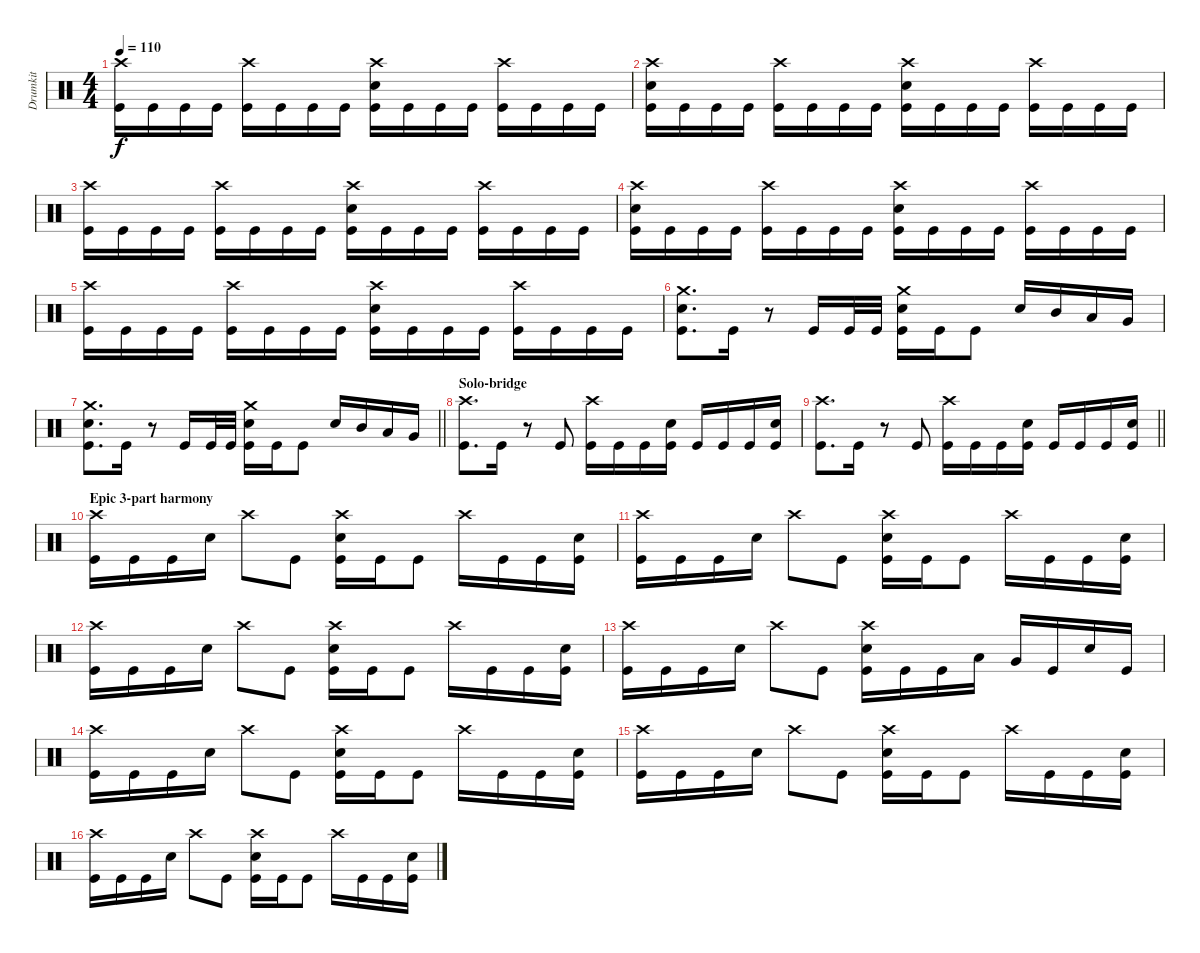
\track ("Drumkit" "Drumkit") {instrument percussion}
\staff {score}
\articulation defaults
\ts (4 4)
\tempo 110
\clef neutral
\ks c
("Crash high (hit)" "Kick (hit)").16{dy f} "Kick (hit)".16 "Kick (hit)".16 "Kick (hit)".16 ("Crash high (hit)" "Kick (hit)").16 "Kick (hit)".16 "Kick (hit)".16 "Kick (hit)".16 ("Crash high (hit)" "Snare (hit) 2" "Kick (hit)").16 "Kick (hit)".16 "Kick (hit)".16 "Kick (hit)".16 ("Crash high (hit)" "Kick (hit)").16 "Kick (hit)".16 "Kick (hit)".16 "Kick (hit)".16 |
("Crash high (hit)" "Snare (hit) 2" "Kick (hit)").16 "Kick (hit)".16 "Kick (hit)".16 "Kick (hit)".16 ("Crash high (hit)" "Kick (hit)").16 "Kick (hit)".16 "Kick (hit)".16 "Kick (hit)".16 ("Crash high (hit)" "Snare (hit) 2" "Kick (hit)").16 "Kick (hit)".16 "Kick (hit)".16 "Kick (hit)".16 ("Crash high (hit)" "Kick (hit)").16 "Kick (hit)".16 "Kick (hit)".16 "Kick (hit)".16 |
("Crash high (hit)" "Kick (hit)").16 "Kick (hit)".16 "Kick (hit)".16 "Kick (hit)".16 ("Crash high (hit)" "Kick (hit)").16 "Kick (hit)".16 "Kick (hit)".16 "Kick (hit)".16 ("Crash high (hit)" "Snare (hit) 2" "Kick (hit)").16 "Kick (hit)".16 "Kick (hit)".16 "Kick (hit)".16 ("Crash high (hit)" "Kick (hit)").16 "Kick (hit)".16 "Kick (hit)".16 "Kick (hit)".16 |
("Crash high (hit)" "Snare (hit) 2" "Kick (hit)").16 "Kick (hit)".16 "Kick (hit)".16 "Kick (hit)".16 ("Crash high (hit)" "Kick (hit)").16 "Kick (hit)".16 "Kick (hit)".16 "Kick (hit)".16 ("Crash high (hit)" "Snare (hit) 2" "Kick (hit)").16 "Kick (hit)".16 "Kick (hit)".16 "Kick (hit)".16 ("Crash high (hit)" "Kick (hit)").16 "Kick (hit)".16 "Kick (hit)".16 "Kick (hit)".16 |
("Crash high (hit)" "Kick (hit)").16 "Kick (hit)".16 "Kick (hit)".16 "Kick (hit)".16 ("Crash high (hit)" "Kick (hit)").16 "Kick (hit)".16 "Kick (hit)".16 "Kick (hit)".16 ("Crash high (hit)" "Snare (hit) 2" "Kick (hit)").16 "Kick (hit)".16 "Kick (hit)".16 "Kick (hit)".16 ("Crash high (hit)" "Kick (hit)").16 "Kick (hit)".16 "Kick (hit)".16 "Kick (hit)".16 |
("Crash medium (hit)" "Snare (hit) 2" "Kick (hit)").8{d} "Kick (hit)".16 r.8 "Kick (hit)".16 "Kick (hit)".32 "Kick (hit)".32 ("Crash medium (hit)" "Snare (hit) 2" "Kick (hit)").16 "Kick (hit)".16 "Kick (hit)".8 "Snare (hit) 2".16 "Mid Tom (hit)".16 "Low Tom (hit)".16 "Very Low Tom (hit)".16 |
\barLineRight lightlight
("Crash medium (hit)" "Snare (hit) 2" "Kick (hit)").8{d} "Kick (hit)".16 r.8 "Kick (hit)".16 "Kick (hit)".32 "Kick (hit)".32 ("Crash medium (hit)" "Snare (hit) 2" "Kick (hit)").16 "Kick (hit)".16 "Kick (hit)".8 "Snare (hit) 2".16 "Mid Tom (hit)".16 "Low Tom (hit)".16 "Very Low Tom (hit)".16 |
\section ("" "Solo-bridge")
("Crash high (hit)" "Kick (hit)").8{d} "Kick (hit)".16 r.8 "Kick (hit)".8 ("Crash high (hit)" "Kick (hit)").16 "Kick (hit)".16 "Kick (hit)".16 ("Snare (hit) 2" "Kick (hit)").16 "Kick (hit)".16 "Kick (hit)".16 "Kick (hit)".16 ("Snare (hit) 2" "Kick (hit)").16 |
\barLineRight lightlight
("Crash high (hit)" "Kick (hit)").8{d} "Kick (hit)".16 r.8 "Kick (hit)".8 ("Crash high (hit)" "Kick (hit)").16 "Kick (hit)".16 "Kick (hit)".16 ("Snare (hit) 2" "Kick (hit)").16 "Kick (hit)".16 "Kick (hit)".16 "Kick (hit)".16 ("Snare (hit) 2" "Kick (hit)").16 |
\section ("" "Epic 3-part harmony")
("Crash high (hit)" "Kick (hit)").16 "Kick (hit)".16 "Kick (hit)".16 "Snare (hit) 2".16 "Crash high (hit)".8 "Kick (hit)".8 ("Crash high (hit)" "Snare (hit) 2" "Kick (hit)").16 "Kick (hit)".16 "Kick (hit)".8 "Crash high (hit)".16 "Kick (hit)".16 "Kick (hit)".16 ("Snare (hit) 2" "Kick (hit)").16 |
("Crash high (hit)" "Kick (hit)").16 "Kick (hit)".16 "Kick (hit)".16 "Snare (hit) 2".16 "Crash high (hit)".8 "Kick (hit)".8 ("Crash high (hit)" "Snare (hit) 2" "Kick (hit)").16 "Kick (hit)".16 "Kick (hit)".8 "Crash high (hit)".16 "Kick (hit)".16 "Kick (hit)".16 ("Snare (hit) 2" "Kick (hit)").16 |
("Crash high (hit)" "Kick (hit)").16 "Kick (hit)".16 "Kick (hit)".16 "Snare (hit) 2".16 "Crash high (hit)".8 "Kick (hit)".8 ("Crash high (hit)" "Snare (hit) 2" "Kick (hit)").16 "Kick (hit)".16 "Kick (hit)".8 "Crash high (hit)".16 "Kick (hit)".16 "Kick (hit)".16 ("Snare (hit) 2" "Kick (hit)").16 |
("Crash high (hit)" "Kick (hit)").16 "Kick (hit)".16 "Kick (hit)".16 "Snare (hit) 2".16 "Crash high (hit)".8 "Kick (hit)".8 ("Crash high (hit)" "Snare (hit) 2" "Kick (hit)").16 "Kick (hit)".16 "Kick (hit)".16 "Low Tom (hit)".16 "Very Low Tom (hit)".16 "Kick (hit)".16 "Snare (hit) 2".16 "Kick (hit)".16 |
("Crash high (hit)" "Kick (hit)").16 "Kick (hit)".16 "Kick (hit)".16 "Snare (hit) 2".16 "Crash high (hit)".8 "Kick (hit)".8 ("Crash high (hit)" "Snare (hit) 2" "Kick (hit)").16 "Kick (hit)".16 "Kick (hit)".8 "Crash high (hit)".16 "Kick (hit)".16 "Kick (hit)".16 ("Snare (hit) 2" "Kick (hit)").16 |
("Crash high (hit)" "Kick (hit)").16 "Kick (hit)".16 "Kick (hit)".16 "Snare (hit) 2".16 "Crash high (hit)".8 "Kick (hit)".8 ("Crash high (hit)" "Snare (hit) 2" "Kick (hit)").16 "Kick (hit)".16 "Kick (hit)".8 "Crash high (hit)".16 "Kick (hit)".16 "Kick (hit)".16 ("Snare (hit) 2" "Kick (hit)").16 |
("Crash high (hit)" "Kick (hit)").16 "Kick (hit)".16 "Kick (hit)".16 "Snare (hit) 2".16 "Crash high (hit)".8 "Kick (hit)".8 ("Crash high (hit)" "Snare (hit) 2" "Kick (hit)").16 "Kick (hit)".16 "Kick (hit)".8 "Crash high (hit)".16 "Kick (hit)".16 "Kick (hit)".16 ("Snare (hit) 2" "Kick (hit)").16
